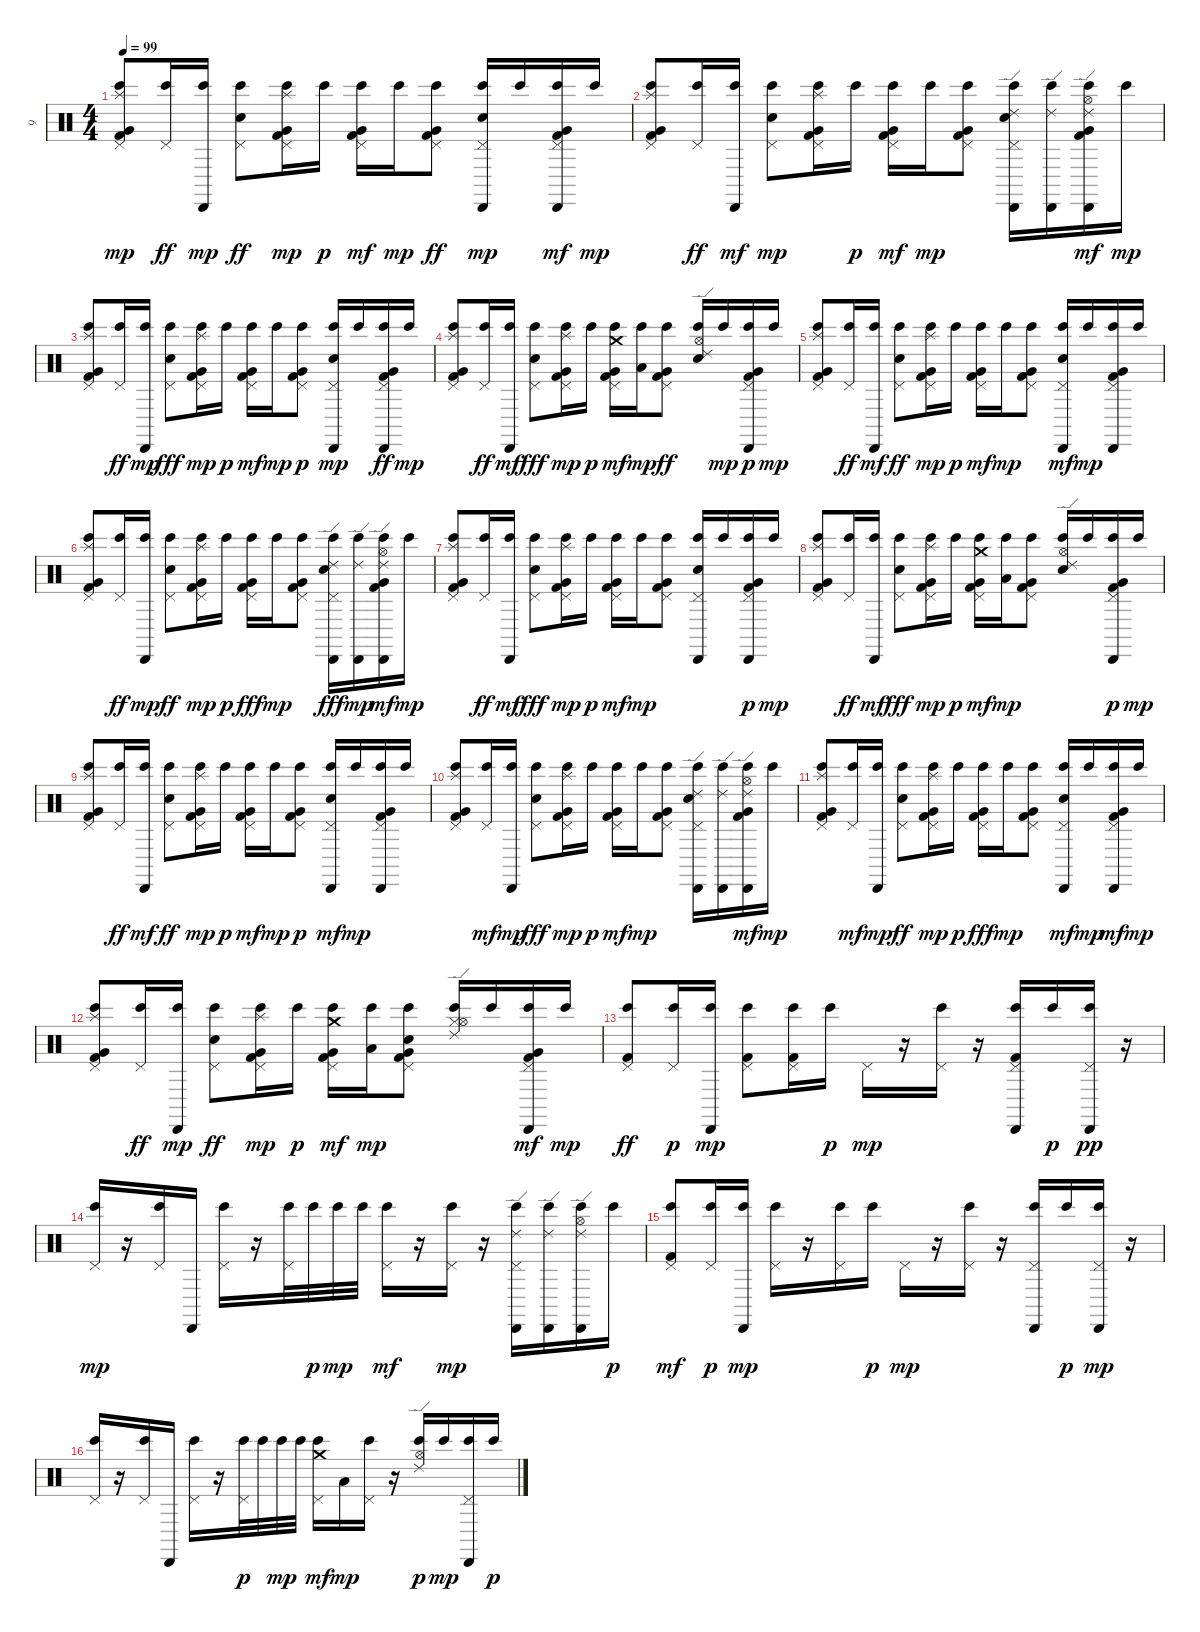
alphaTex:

\track ("9" "9") {instrument percussion}
\staff {score}
\articulation defaults
\ts (4 4)
\tempo 99
\clef neutral
\ks c
("Very Low Tom (hit)" "Bongo High (hit)" "Kick (hit) 2" "Pedal Hi-Hat (hit)" "Splash (hit)").8{dy mp} ("Bongo High (hit)" "Pedal Hi-Hat (hit)").16{dy ff} ("Cabasa (hit)" "Bongo High (hit)").16{dy mp} ("Electric Snare (hit)" "Bongo High (hit)" "Pedal Hi-Hat (hit)").8{dy ff} ("Bongo High (hit)" "Very Low Tom (hit)" "Pedal Hi-Hat (hit)" "Kick (hit) 2" "Splash (hit)").16{dy mp} "Bongo High (hit)".16{dy p} ("Pedal Hi-Hat (hit)" "Very Low Tom (hit)" "Kick (hit) 2" "Bongo High (hit)").16{dy mf} "Bongo High (hit)".16{dy mp} ("Very Low Tom (hit)" "Kick (hit) 2" "Bongo High (hit)" "Pedal Hi-Hat (hit)").8{dy ff} ("Cabasa (hit)" "Electric Snare (hit)" "Pedal Hi-Hat (hit)" "Bongo High (hit)").16{dy mp} "Bongo High (hit)".16 ("Very Low Tom (hit)" "Kick (hit) 2" "Bongo High (hit)" "Pedal Hi-Hat (hit)" "Cabasa (hit)").16{dy mf} "Bongo High (hit)".16{dy mp} |
("Very Low Tom (hit)" "Bongo High (hit)" "Pedal Hi-Hat (hit)" "Kick (hit) 2" "Splash (hit)").8 ("Bongo High (hit)" "Pedal Hi-Hat (hit)").16{dy ff} ("Bongo High (hit)" "Cabasa (hit)").16{dy mf} ("Electric Snare (hit)" "Pedal Hi-Hat (hit)" "Bongo High (hit)").8{dy mp} ("Very Low Tom (hit)" "Kick (hit) 2" "Pedal Hi-Hat (hit)" "Bongo High (hit)" "Splash (hit)").16 "Bongo High (hit)".16{dy p} ("Pedal Hi-Hat (hit)" "Very Low Tom (hit)" "Kick (hit) 2" "Bongo High (hit)").16{dy mf} "Bongo High (hit)".16{dy mp} ("Pedal Hi-Hat (hit)" "Kick (hit) 2" "Very Low Tom (hit)" "Bongo High (hit)").8 ("Cabasa (hit)" "Ride (edge) 2" "Pedal Hi-Hat (hit)" "Electric Snare (hit)" "Bongo High (hit)").16 ("Ride (edge) 2" "Cabasa (hit)" "Bongo High (hit)").16 ("Bongo High (hit)" "Hi-Hat (open)" "Cabasa (hit)" "Kick (hit) 2" "Very Low Tom (hit)" "Ride (edge) 2").16{dy mf} "Bongo High (hit)".16{dy mp} |
("Kick (hit) 2" "Bongo High (hit)" "Pedal Hi-Hat (hit)" "Very Low Tom (hit)" "Splash (hit)").8 ("Bongo High (hit)" "Pedal Hi-Hat (hit)").16{dy ff} ("Cabasa (hit)" "Bongo High (hit)").16{dy mp} ("Pedal Hi-Hat (hit)" "Bongo High (hit)" "Electric Snare (hit)").8{dy fff} ("Bongo High (hit)" "Kick (hit) 2" "Very Low Tom (hit)" "Pedal Hi-Hat (hit)" "Splash (hit)").16{dy mp} "Bongo High (hit)".16{dy p} ("Very Low Tom (hit)" "Kick (hit) 2" "Pedal Hi-Hat (hit)" "Bongo High (hit)").16{dy mf} "Bongo High (hit)".16{dy mp} ("Bongo High (hit)" "Kick (hit) 2" "Pedal Hi-Hat (hit)" "Very Low Tom (hit)").8{dy p} ("Pedal Hi-Hat (hit)" "Cabasa (hit)" "Electric Snare (hit)" "Bongo High (hit)").16{dy mp} "Bongo High (hit)".16 ("Bongo High (hit)" "Cabasa (hit)" "Kick (hit) 2" "Very Low Tom (hit)" "Pedal Hi-Hat (hit)").16{dy ff} "Bongo High (hit)".16{dy mp} |
("Very Low Tom (hit)" "Kick (hit) 2" "Bongo High (hit)" "Pedal Hi-Hat (hit)" "Splash (hit)").8 ("Bongo High (hit)" "Pedal Hi-Hat (hit)").16{dy ff} ("Bongo High (hit)" "Cabasa (hit)").16{dy mf} ("Bongo High (hit)" "Pedal Hi-Hat (hit)" "Electric Snare (hit)").8{dy fff} ("Bongo High (hit)" "Very Low Tom (hit)" "Kick (hit) 2" "Pedal Hi-Hat (hit)" "Splash (hit)").16{dy mp} "Bongo High (hit)".16{dy p} ("Very Low Tom (hit)" "Pedal Hi-Hat (hit)" "Crash medium (hit)" "Kick (hit) 2" "Bongo High (hit)").16{dy mf} ("Bongo High (hit)" "Low Tom (hit)").16{dy mp} ("Kick (hit) 2" "Very Low Tom (hit)" "Bongo High (hit)" "Pedal Hi-Hat (hit)").8{dy ff} ("Bongo High (hit)" "Electric Snare (hit)" "Ride (edge) 2" "Hi-Hat (open)").16 "Bongo High (hit)".16{dy mp} ("Kick (hit) 2" "Pedal Hi-Hat (hit)" "Bongo High (hit)" "Cabasa (hit)" "Very Low Tom (hit)").16{dy p} "Bongo High (hit)".16{dy mp} |
("Pedal Hi-Hat (hit)" "Kick (hit) 2" "Very Low Tom (hit)" "Bongo High (hit)" "Splash (hit)").8 ("Bongo High (hit)" "Pedal Hi-Hat (hit)").16{dy ff} ("Bongo High (hit)" "Cabasa (hit)").16{dy mf} ("Electric Snare (hit)" "Bongo High (hit)" "Pedal Hi-Hat (hit)").8{dy ff} ("Kick (hit) 2" "Bongo High (hit)" "Pedal Hi-Hat (hit)" "Very Low Tom (hit)" "Splash (hit)").16{dy mp} "Bongo High (hit)".16{dy p} ("Kick (hit) 2" "Pedal Hi-Hat (hit)" "Very Low Tom (hit)" "Bongo High (hit)").16{dy mf} "Bongo High (hit)".16{dy mp} ("Very Low Tom (hit)" "Pedal Hi-Hat (hit)" "Kick (hit) 2" "Bongo High (hit)").8 ("Electric Snare (hit)" "Bongo High (hit)" "Pedal Hi-Hat (hit)" "Cabasa (hit)").16{dy mf} "Bongo High (hit)".16{dy mp} ("Cabasa (hit)" "Pedal Hi-Hat (hit)" "Very Low Tom (hit)" "Kick (hit) 2" "Bongo High (hit)").16 "Bongo High (hit)".16 |
("Bongo High (hit)" "Pedal Hi-Hat (hit)" "Very Low Tom (hit)" "Kick (hit) 2" "Splash (hit)").8 ("Bongo High (hit)" "Pedal Hi-Hat (hit)").16{dy ff} ("Cabasa (hit)" "Bongo High (hit)").16{dy mp} ("Bongo High (hit)" "Electric Snare (hit)" "Pedal Hi-Hat (hit)").8{dy ff} ("Bongo High (hit)" "Pedal Hi-Hat (hit)" "Very Low Tom (hit)" "Kick (hit) 2" "Splash (hit)").16{dy mp} "Bongo High (hit)".16{dy p} ("Very Low Tom (hit)" "Pedal Hi-Hat (hit)" "Bongo High (hit)" "Kick (hit) 2").16{dy fff} "Bongo High (hit)".16{dy mp} ("Kick (hit) 2" "Pedal Hi-Hat (hit)" "Very Low Tom (hit)" "Bongo High (hit)").8 ("Ride (edge) 2" "Pedal Hi-Hat (hit)" "Bongo High (hit)" "Cabasa (hit)" "Electric Snare (hit)").16{dy fff} ("Bongo High (hit)" "Ride (edge) 2" "Cabasa (hit)").16{dy mp} ("Cabasa (hit)" "Ride (edge) 2" "Bongo High (hit)" "Very Low Tom (hit)" "Hi-Hat (open)" "Kick (hit) 2").16{dy mf} "Bongo High (hit)".16{dy mp} |
("Very Low Tom (hit)" "Pedal Hi-Hat (hit)" "Kick (hit) 2" "Bongo High (hit)" "Splash (hit)").8 ("Bongo High (hit)" "Pedal Hi-Hat (hit)").16{dy ff} ("Bongo High (hit)" "Cabasa (hit)").16{dy mf} ("Bongo High (hit)" "Pedal Hi-Hat (hit)" "Electric Snare (hit)").8{dy fff} ("Pedal Hi-Hat (hit)" "Bongo High (hit)" "Kick (hit) 2" "Very Low Tom (hit)" "Splash (hit)").16{dy mp} "Bongo High (hit)".16{dy p} ("Very Low Tom (hit)" "Pedal Hi-Hat (hit)" "Kick (hit) 2" "Bongo High (hit)").16{dy mf} "Bongo High (hit)".16{dy mp} ("Very Low Tom (hit)" "Pedal Hi-Hat (hit)" "Bongo High (hit)" "Kick (hit) 2").8 ("Cabasa (hit)" "Pedal Hi-Hat (hit)" "Electric Snare (hit)" "Bongo High (hit)").16 "Bongo High (hit)".16 ("Pedal Hi-Hat (hit)" "Cabasa (hit)" "Bongo High (hit)" "Kick (hit) 2" "Very Low Tom (hit)").16{dy p} "Bongo High (hit)".16{dy mp} |
("Kick (hit) 2" "Very Low Tom (hit)" "Pedal Hi-Hat (hit)" "Bongo High (hit)" "Splash (hit)").8 ("Bongo High (hit)" "Pedal Hi-Hat (hit)").16{dy ff} ("Bongo High (hit)" "Cabasa (hit)").16{dy mf} ("Pedal Hi-Hat (hit)" "Bongo High (hit)" "Electric Snare (hit)").8{dy fff} ("Bongo High (hit)" "Pedal Hi-Hat (hit)" "Kick (hit) 2" "Very Low Tom (hit)" "Splash (hit)").16{dy mp} "Bongo High (hit)".16{dy p} ("Pedal Hi-Hat (hit)" "Crash medium (hit)" "Very Low Tom (hit)" "Kick (hit) 2" "Bongo High (hit)").16{dy mf} ("Bongo High (hit)" "Low Tom (hit)").16{dy mp} ("Pedal Hi-Hat (hit)" "Very Low Tom (hit)" "Bongo High (hit)" "Kick (hit) 2").8 ("Electric Snare (hit)" "Hi-Hat (open)" "Ride (edge) 2" "Bongo High (hit)").16 "Bongo High (hit)".16 ("Cabasa (hit)" "Pedal Hi-Hat (hit)" "Bongo High (hit)" "Kick (hit) 2" "Very Low Tom (hit)").16{dy p} "Bongo High (hit)".16{dy mp} |
("Bongo High (hit)" "Very Low Tom (hit)" "Kick (hit) 2" "Pedal Hi-Hat (hit)" "Splash (hit)").8 ("Bongo High (hit)" "Pedal Hi-Hat (hit)").16{dy ff} ("Bongo High (hit)" "Cabasa (hit)").16{dy mf} ("Bongo High (hit)" "Electric Snare (hit)" "Pedal Hi-Hat (hit)").8{dy ff} ("Kick (hit) 2" "Bongo High (hit)" "Very Low Tom (hit)" "Pedal Hi-Hat (hit)" "Splash (hit)").16{dy mp} "Bongo High (hit)".16{dy p} ("Very Low Tom (hit)" "Kick (hit) 2" "Pedal Hi-Hat (hit)" "Bongo High (hit)").16{dy mf} "Bongo High (hit)".16{dy mp} ("Pedal Hi-Hat (hit)" "Bongo High (hit)" "Very Low Tom (hit)" "Kick (hit) 2").8{dy p} ("Electric Snare (hit)" "Bongo High (hit)" "Pedal Hi-Hat (hit)" "Cabasa (hit)").16{dy mf} "Bongo High (hit)".16{dy mp} ("Very Low Tom (hit)" "Pedal Hi-Hat (hit)" "Cabasa (hit)" "Kick (hit) 2" "Bongo High (hit)").16 "Bongo High (hit)".16 |
("Bongo High (hit)" "Very Low Tom (hit)" "Pedal Hi-Hat (hit)" "Kick (hit) 2" "Splash (hit)").8 ("Pedal Hi-Hat (hit)" "Bongo High (hit)").16{dy mf} ("Cabasa (hit)" "Bongo High (hit)").16{dy mp} ("Bongo High (hit)" "Pedal Hi-Hat (hit)" "Electric Snare (hit)").8{dy fff} ("Kick (hit) 2" "Bongo High (hit)" "Pedal Hi-Hat (hit)" "Very Low Tom (hit)" "Splash (hit)").16{dy mp} "Bongo High (hit)".16{dy p} ("Very Low Tom (hit)" "Pedal Hi-Hat (hit)" "Kick (hit) 2" "Bongo High (hit)").16{dy mf} "Bongo High (hit)".16{dy mp} ("Very Low Tom (hit)" "Pedal Hi-Hat (hit)" "Bongo High (hit)" "Kick (hit) 2").8 ("Electric Snare (hit)" "Pedal Hi-Hat (hit)" "Bongo High (hit)" "Cabasa (hit)" "Ride (edge) 2").16 ("Ride (edge) 2" "Bongo High (hit)" "Cabasa (hit)").16 ("Ride (edge) 2" "Kick (hit) 2" "Bongo High (hit)" "Very Low Tom (hit)" "Hi-Hat (open)" "Cabasa (hit)").16{dy mf} "Bongo High (hit)".16{dy mp} |
("Bongo High (hit)" "Very Low Tom (hit)" "Kick (hit) 2" "Pedal Hi-Hat (hit)" "Splash (hit)").8 ("Pedal Hi-Hat (hit)" "Bongo High (hit)").16{dy mf} ("Cabasa (hit)" "Bongo High (hit)").16{dy mp} ("Electric Snare (hit)" "Bongo High (hit)" "Pedal Hi-Hat (hit)").8{dy ff} ("Pedal Hi-Hat (hit)" "Kick (hit) 2" "Bongo High (hit)" "Very Low Tom (hit)" "Splash (hit)").16{dy mp} "Bongo High (hit)".16{dy p} ("Pedal Hi-Hat (hit)" "Bongo High (hit)" "Very Low Tom (hit)" "Kick (hit) 2").16{dy fff} "Bongo High (hit)".16{dy mp} ("Pedal Hi-Hat (hit)" "Kick (hit) 2" "Very Low Tom (hit)" "Bongo High (hit)").8 ("Pedal Hi-Hat (hit)" "Electric Snare (hit)" "Bongo High (hit)" "Cabasa (hit)").16{dy mf} "Bongo High (hit)".16{dy mp} ("Very Low Tom (hit)" "Pedal Hi-Hat (hit)" "Bongo High (hit)" "Kick (hit) 2" "Cabasa (hit)").16{dy mf} "Bongo High (hit)".16{dy mp} |
("Very Low Tom (hit)" "Bongo High (hit)" "Pedal Hi-Hat (hit)" "Kick (hit) 2" "Splash (hit)").8 ("Bongo High (hit)" "Pedal Hi-Hat (hit)").16{dy ff} ("Cabasa (hit)" "Bongo High (hit)").16{dy mp} ("Electric Snare (hit)" "Bongo High (hit)" "Pedal Hi-Hat (hit)").8{dy ff} ("Pedal Hi-Hat (hit)" "Kick (hit) 2" "Very Low Tom (hit)" "Bongo High (hit)" "Splash (hit)").16{dy mp} "Bongo High (hit)".16{dy p} ("Bongo High (hit)" "Very Low Tom (hit)" "Kick (hit) 2" "Pedal Hi-Hat (hit)" "Crash medium (hit)").16{dy mf} ("Bongo High (hit)" "Low Tom (hit)").16{dy mp} ("Pedal Hi-Hat (hit)" "Very Low Tom (hit)" "Kick (hit) 2" "Electric Snare (hit)" "Bongo High (hit)").8 ("Hi-Hat (closed)" "Ride (edge) 2" "Hi-Hat (open)" "Bongo High (hit)").16 "Bongo High (hit)".16 ("Pedal Hi-Hat (hit)" "Bongo High (hit)" "Very Low Tom (hit)" "Cabasa (hit)" "Kick (hit) 2").16{dy mf} "Bongo High (hit)".16{dy mp} |
("Bongo High (hit)" "Pedal Hi-Hat (hit)" "Kick (hit) 2").8{dy ff} ("Pedal Hi-Hat (hit)" "Bongo High (hit)").16{dy p} ("Bongo High (hit)" "Cabasa (hit)").16{dy mp} ("Bongo High (hit)" "Kick (hit) 2" "Pedal Hi-Hat (hit)").8 ("Pedal Hi-Hat (hit)" "Kick (hit) 2" "Bongo High (hit)").16 "Bongo High (hit)".16{dy p} "Pedal Hi-Hat (hit)".16{dy mp} r.16 ("Bongo High (hit)" "Pedal Hi-Hat (hit)").16 r.16 ("Pedal Hi-Hat (hit)" "Bongo High (hit)" "Cabasa (hit)" "Kick (hit) 2").16 "Bongo High (hit)".16{dy p} ("Pedal Hi-Hat (hit)" "Cabasa (hit)" "Bongo High (hit)").16{dy pp} r.16 |
("Bongo High (hit)" "Pedal Hi-Hat (hit)").16{dy mp} r.16 ("Pedal Hi-Hat (hit)" "Bongo High (hit)").16 "Cabasa (hit)".16 ("Bongo High (hit)" "Pedal Hi-Hat (hit)").16 r.16 ("Bongo High (hit)" "Pedal Hi-Hat (hit)").32 "Bongo High (hit)".32{dy p} "Bongo High (hit)".32{dy mp} "Bongo High (hit)".32 ("Pedal Hi-Hat (hit)" "Bongo High (hit)").16{dy mf} r.16 ("Bongo High (hit)" "Pedal Hi-Hat (hit)").16{dy mp} r.16 ("Ride (edge) 2" "Pedal Hi-Hat (hit)" "Bongo High (hit)" "Cabasa (hit)").16 ("Bongo High (hit)" "Cabasa (hit)" "Ride (edge) 2").16 ("Cabasa (hit)" "Ride (edge) 2" "Hi-Hat (open)" "Bongo High (hit)").16 "Bongo High (hit)".16{dy p} |
("Pedal Hi-Hat (hit)" "Bongo High (hit)" "Kick (hit) 2").8{dy mf} ("Pedal Hi-Hat (hit)" "Bongo High (hit)").16{dy p} ("Cabasa (hit)" "Bongo High (hit)").16{dy mp} ("Bongo High (hit)" "Pedal Hi-Hat (hit)").16 r.16 ("Pedal Hi-Hat (hit)" "Bongo High (hit)").16 "Bongo High (hit)".16{dy p} "Pedal Hi-Hat (hit)".16{dy mp} r.16 ("Bongo High (hit)" "Pedal Hi-Hat (hit)").16 r.16 ("Bongo High (hit)" "Pedal Hi-Hat (hit)" "Cabasa (hit)").16 "Bongo High (hit)".16{dy p} ("Bongo High (hit)" "Cabasa (hit)" "Pedal Hi-Hat (hit)").16{dy mp} r.16 |
("Bongo High (hit)" "Pedal Hi-Hat (hit)").16 r.16 ("Pedal Hi-Hat (hit)" "Bongo High (hit)").16 "Cabasa (hit)".16 ("Pedal Hi-Hat (hit)" "Bongo High (hit)").16 r.16 ("Pedal Hi-Hat (hit)" "Bongo High (hit)").32{dy p} "Bongo High (hit)".32 "Bongo High (hit)".32{dy mp} "Bongo High (hit)".32 ("Pedal Hi-Hat (hit)" "Crash medium (hit)" "Bongo High (hit)").16{dy mf} "Low Tom (hit)".16{dy mp} ("Bongo High (hit)" "Pedal Hi-Hat (hit)").16 r.16 ("Ride (edge) 2" "Hi-Hat (open)" "Bongo High (hit)").16{dy p} "Bongo High (hit)".16{dy mp} ("Bongo High (hit)" "Cabasa (hit)" "Pedal Hi-Hat (hit)").16 "Bongo High (hit)".16{dy p}
